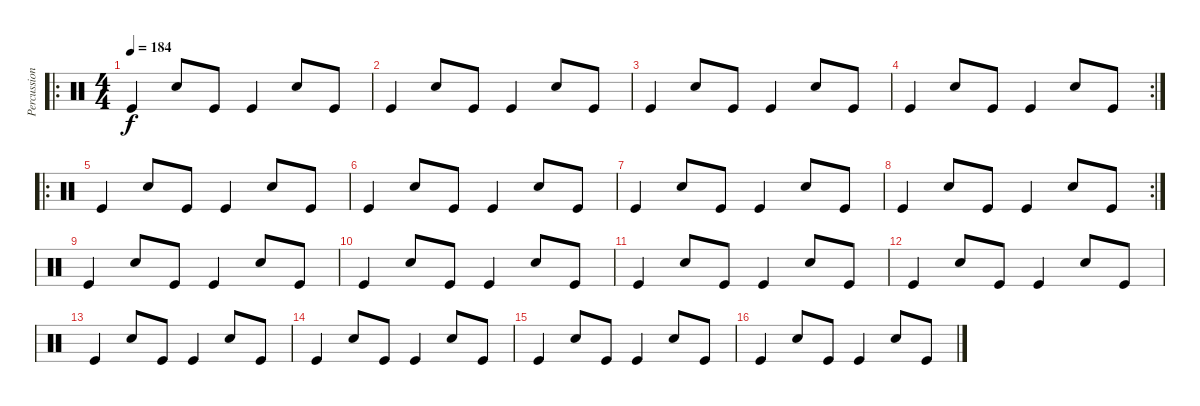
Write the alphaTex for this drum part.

\track ("Percussion" "Percussion") {instrument percussion}
\staff {score}
\articulation defaults
\ro
\ts (4 4)
\tempo 184
\clef neutral
\ks c "Kick (hit)".4{dy f} "Snare (hit) 2".8 "Kick (hit)".8 "Kick (hit)".4 "Snare (hit) 2".8 "Kick (hit)".8
|
"Kick (hit)".4 "Snare (hit) 2".8 "Kick (hit)".8 "Kick (hit)".4 "Snare (hit) 2".8 "Kick (hit)".8 |
"Kick (hit)".4 "Snare (hit) 2".8 "Kick (hit)".8 "Kick (hit)".4 "Snare (hit) 2".8 "Kick (hit)".8 |
\rc 2 "Kick (hit)".4 "Snare (hit) 2".8 "Kick (hit)".8 "Kick (hit)".4 "Snare (hit) 2".8 "Kick (hit)".8
|
\ro "Kick (hit)".4 "Snare (hit) 2".8 "Kick (hit)".8 "Kick (hit)".4 "Snare (hit) 2".8 "Kick (hit)".8
|
"Kick (hit)".4 "Snare (hit) 2".8 "Kick (hit)".8 "Kick (hit)".4 "Snare (hit) 2".8 "Kick (hit)".8 |
"Kick (hit)".4 "Snare (hit) 2".8 "Kick (hit)".8 "Kick (hit)".4 "Snare (hit) 2".8 "Kick (hit)".8 |
\rc 2 "Kick (hit)".4 "Snare (hit) 2".8 "Kick (hit)".8 "Kick (hit)".4 "Snare (hit) 2".8 "Kick (hit)".8
|
"Kick (hit)".4 "Snare (hit) 2".8 "Kick (hit)".8 "Kick (hit)".4 "Snare (hit) 2".8 "Kick (hit)".8 |
"Kick (hit)".4 "Snare (hit) 2".8 "Kick (hit)".8 "Kick (hit)".4 "Snare (hit) 2".8 "Kick (hit)".8 |
"Kick (hit)".4 "Snare (hit) 2".8 "Kick (hit)".8 "Kick (hit)".4 "Snare (hit) 2".8 "Kick (hit)".8 |
"Kick (hit)".4 "Snare (hit) 2".8 "Kick (hit)".8 "Kick (hit)".4 "Snare (hit) 2".8 "Kick (hit)".8 |
"Kick (hit)".4 "Snare (hit) 2".8 "Kick (hit)".8 "Kick (hit)".4 "Snare (hit) 2".8 "Kick (hit)".8 |
"Kick (hit)".4 "Snare (hit) 2".8 "Kick (hit)".8 "Kick (hit)".4 "Snare (hit) 2".8 "Kick (hit)".8 |
"Kick (hit)".4 "Snare (hit) 2".8 "Kick (hit)".8 "Kick (hit)".4 "Snare (hit) 2".8 "Kick (hit)".8 |
"Kick (hit)".4 "Snare (hit) 2".8 "Kick (hit)".8 "Kick (hit)".4 "Snare (hit) 2".8 "Kick (hit)".8
